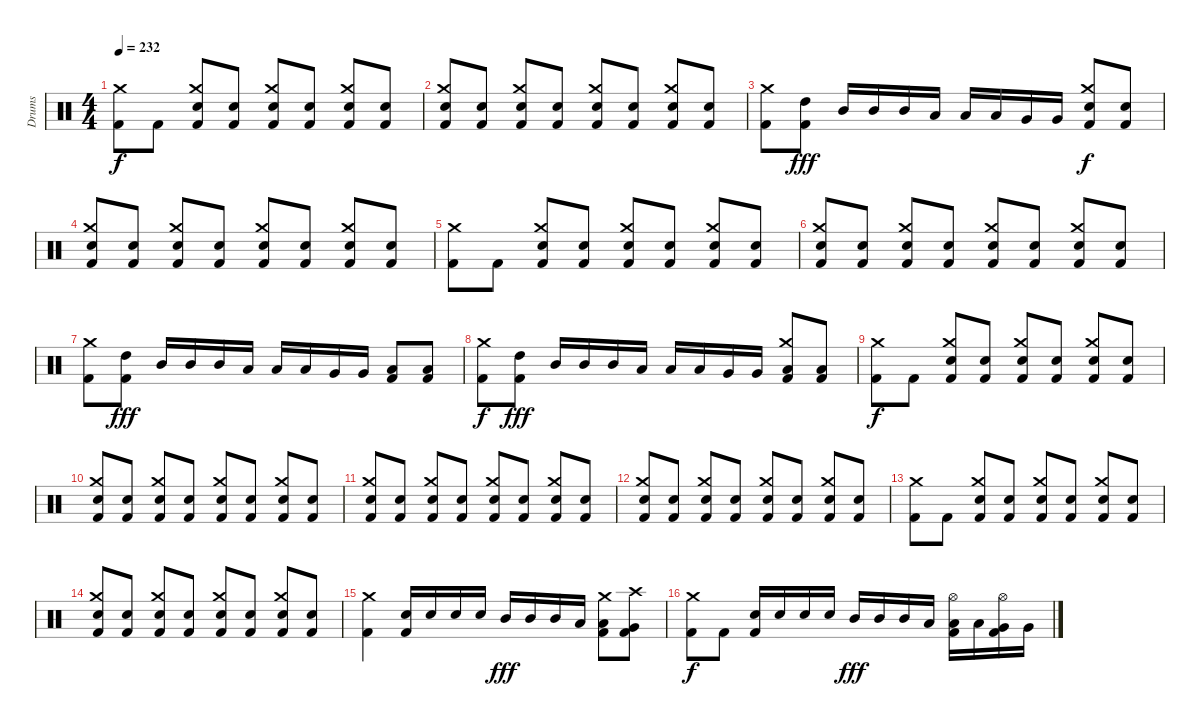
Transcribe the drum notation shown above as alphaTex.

\track ("Drums" "Drums") {instrument percussion}
\staff {score}
\articulation defaults
\ts (4 4)
\tempo 232
\clef neutral
\ks c
("Kick (hit) 2" "Crash medium (hit)").8{dy f} "Kick (hit) 2".8 ("Kick (hit) 2" "Snare (hit) 2" "Crash medium (hit)").8 ("Kick (hit) 2" "Snare (hit) 2").8 ("Kick (hit) 2" "Snare (hit) 2" "Crash medium (hit)").8 ("Kick (hit) 2" "Snare (hit) 2").8 ("Kick (hit) 2" "Snare (hit) 2" "Crash medium (hit)").8 ("Kick (hit) 2" "Snare (hit) 2").8 |
("Kick (hit) 2" "Snare (hit) 2" "Crash medium (hit)").8 ("Kick (hit) 2" "Snare (hit) 2").8 ("Kick (hit) 2" "Snare (hit) 2" "Crash medium (hit)").8 ("Kick (hit) 2" "Snare (hit) 2").8 ("Kick (hit) 2" "Snare (hit) 2" "Crash medium (hit)").8 ("Kick (hit) 2" "Snare (hit) 2").8 ("Kick (hit) 2" "Snare (hit) 2" "Crash medium (hit)").8 ("Kick (hit) 2" "Snare (hit) 2").8 |
("Kick (hit) 2" "Crash medium (hit)").8 ("Kick (hit) 2" "High Tom (hit)").8{dy fff} "Mid Tom (hit)".16 "Mid Tom (hit)".16 "Mid Tom (hit)".16 "Low Tom (hit)".16 "Low Tom (hit)".16 "Low Tom (hit)".16 "Very Low Tom (hit)".16 "Very Low Tom (hit)".16 ("Kick (hit) 2" "Snare (hit) 2" "Crash medium (hit)").8{dy f} ("Kick (hit) 2" "Snare (hit) 2").8 |
("Kick (hit) 2" "Snare (hit) 2" "Crash medium (hit)").8 ("Kick (hit) 2" "Snare (hit) 2").8 ("Kick (hit) 2" "Snare (hit) 2" "Crash medium (hit)").8 ("Kick (hit) 2" "Snare (hit) 2").8 ("Kick (hit) 2" "Snare (hit) 2" "Crash medium (hit)").8 ("Kick (hit) 2" "Snare (hit) 2").8 ("Kick (hit) 2" "Snare (hit) 2" "Crash medium (hit)").8 ("Kick (hit) 2" "Snare (hit) 2").8 |
("Kick (hit) 2" "Crash medium (hit)").8 "Kick (hit) 2".8 ("Kick (hit) 2" "Snare (hit) 2" "Crash medium (hit)").8 ("Kick (hit) 2" "Snare (hit) 2").8 ("Kick (hit) 2" "Snare (hit) 2" "Crash medium (hit)").8 ("Kick (hit) 2" "Snare (hit) 2").8 ("Kick (hit) 2" "Snare (hit) 2" "Crash medium (hit)").8 ("Kick (hit) 2" "Snare (hit) 2").8 |
("Kick (hit) 2" "Snare (hit) 2" "Crash medium (hit)").8 ("Kick (hit) 2" "Snare (hit) 2").8 ("Kick (hit) 2" "Snare (hit) 2" "Crash medium (hit)").8 ("Kick (hit) 2" "Snare (hit) 2").8 ("Kick (hit) 2" "Snare (hit) 2" "Crash medium (hit)").8 ("Kick (hit) 2" "Snare (hit) 2").8 ("Kick (hit) 2" "Snare (hit) 2" "Crash medium (hit)").8 ("Kick (hit) 2" "Snare (hit) 2").8 |
("Kick (hit) 2" "Crash medium (hit)").8 ("Kick (hit) 2" "High Tom (hit)").8{dy fff} "Mid Tom (hit)".16 "Mid Tom (hit)".16 "Mid Tom (hit)".16 "Low Tom (hit)".16 "Low Tom (hit)".16 "Low Tom (hit)".16 "Very Low Tom (hit)".16 "Very Low Tom (hit)".16 ("Kick (hit) 2" "Low Floor Tom (hit)").8 ("Kick (hit) 2" "Low Floor Tom (hit)").8 |
("Kick (hit) 2" "Crash medium (hit)").8{dy f} ("Kick (hit) 2" "High Tom (hit)").8{dy fff} "Mid Tom (hit)".16 "Mid Tom (hit)".16 "Mid Tom (hit)".16 "Low Tom (hit)".16 "Low Tom (hit)".16 "Low Tom (hit)".16 "Very Low Tom (hit)".16 "Very Low Tom (hit)".16 ("Kick (hit) 2" "Low Floor Tom (hit)" "Crash medium (hit)").8 ("Kick (hit) 2" "Low Floor Tom (hit)").8 |
("Kick (hit) 2" "Crash medium (hit)").8{dy f} "Kick (hit) 2".8 ("Kick (hit) 2" "Snare (hit) 2" "Crash medium (hit)").8 ("Kick (hit) 2" "Snare (hit) 2").8 ("Kick (hit) 2" "Snare (hit) 2" "Crash medium (hit)").8 ("Kick (hit) 2" "Snare (hit) 2").8 ("Kick (hit) 2" "Snare (hit) 2" "Crash medium (hit)").8 ("Kick (hit) 2" "Snare (hit) 2").8 |
("Kick (hit) 2" "Snare (hit) 2" "Crash medium (hit)").8 ("Kick (hit) 2" "Snare (hit) 2").8 ("Kick (hit) 2" "Snare (hit) 2" "Crash medium (hit)").8 ("Kick (hit) 2" "Snare (hit) 2").8 ("Kick (hit) 2" "Snare (hit) 2" "Crash medium (hit)").8 ("Kick (hit) 2" "Snare (hit) 2").8 ("Kick (hit) 2" "Snare (hit) 2" "Crash medium (hit)").8 ("Kick (hit) 2" "Snare (hit) 2").8 |
("Kick (hit) 2" "Snare (hit) 2" "Crash medium (hit)").8 ("Kick (hit) 2" "Snare (hit) 2").8 ("Kick (hit) 2" "Snare (hit) 2" "Crash medium (hit)").8 ("Kick (hit) 2" "Snare (hit) 2").8 ("Kick (hit) 2" "Snare (hit) 2" "Crash medium (hit)").8 ("Kick (hit) 2" "Snare (hit) 2").8 ("Kick (hit) 2" "Snare (hit) 2" "Crash medium (hit)").8 ("Kick (hit) 2" "Snare (hit) 2").8 |
("Kick (hit) 2" "Snare (hit) 2" "Crash medium (hit)").8 ("Kick (hit) 2" "Snare (hit) 2").8 ("Kick (hit) 2" "Snare (hit) 2" "Crash medium (hit)").8 ("Kick (hit) 2" "Snare (hit) 2").8 ("Kick (hit) 2" "Snare (hit) 2" "Crash medium (hit)").8 ("Kick (hit) 2" "Snare (hit) 2").8 ("Kick (hit) 2" "Snare (hit) 2" "Crash medium (hit)").8 ("Kick (hit) 2" "Snare (hit) 2").8 |
("Kick (hit) 2" "Crash medium (hit)").8 "Kick (hit) 2".8 ("Kick (hit) 2" "Snare (hit) 2" "Crash medium (hit)").8 ("Kick (hit) 2" "Snare (hit) 2").8 ("Kick (hit) 2" "Snare (hit) 2" "Crash medium (hit)").8 ("Kick (hit) 2" "Snare (hit) 2").8 ("Kick (hit) 2" "Snare (hit) 2" "Crash medium (hit)").8 ("Kick (hit) 2" "Snare (hit) 2").8 |
("Kick (hit) 2" "Snare (hit) 2" "Crash medium (hit)").8 ("Kick (hit) 2" "Snare (hit) 2").8 ("Kick (hit) 2" "Snare (hit) 2" "Crash medium (hit)").8 ("Kick (hit) 2" "Snare (hit) 2").8 ("Kick (hit) 2" "Snare (hit) 2" "Crash medium (hit)").8 ("Kick (hit) 2" "Snare (hit) 2").8 ("Kick (hit) 2" "Snare (hit) 2" "Crash medium (hit)").8 ("Kick (hit) 2" "Snare (hit) 2").8 |
("Kick (hit) 2" "Crash medium (hit)").4 ("Kick (hit) 2" "Electric Snare (hit)").16 "Electric Snare (hit)".16 "Electric Snare (hit)".16 "Electric Snare (hit)".16 "Mid Tom (hit)".16{dy fff} "Mid Tom (hit)".16 "Mid Tom (hit)".16 "Low Tom (hit)".16 ("Kick (hit) 2" "Low Tom (hit)" "Crash medium (hit)").8 ("Kick (hit) 2" "Very Low Tom (hit)" "Crash high (hit)").8 |
("Kick (hit) 2" "Crash medium (hit)").8{dy f} "Kick (hit) 2".8 ("Kick (hit) 2" "Electric Snare (hit)").16 "Electric Snare (hit)".16 "Electric Snare (hit)".16 "Electric Snare (hit)".16 "Mid Tom (hit)".16{dy fff} "Mid Tom (hit)".16 "Mid Tom (hit)".16 "Low Tom (hit)".16 ("Kick (hit) 2" "Low Tom (hit)" "Hi-Hat (open)").16 "Low Tom (hit)".16 ("Kick (hit) 2" "Very Low Tom (hit)" "Hi-Hat (open)").16 "Very Low Tom (hit)".16
